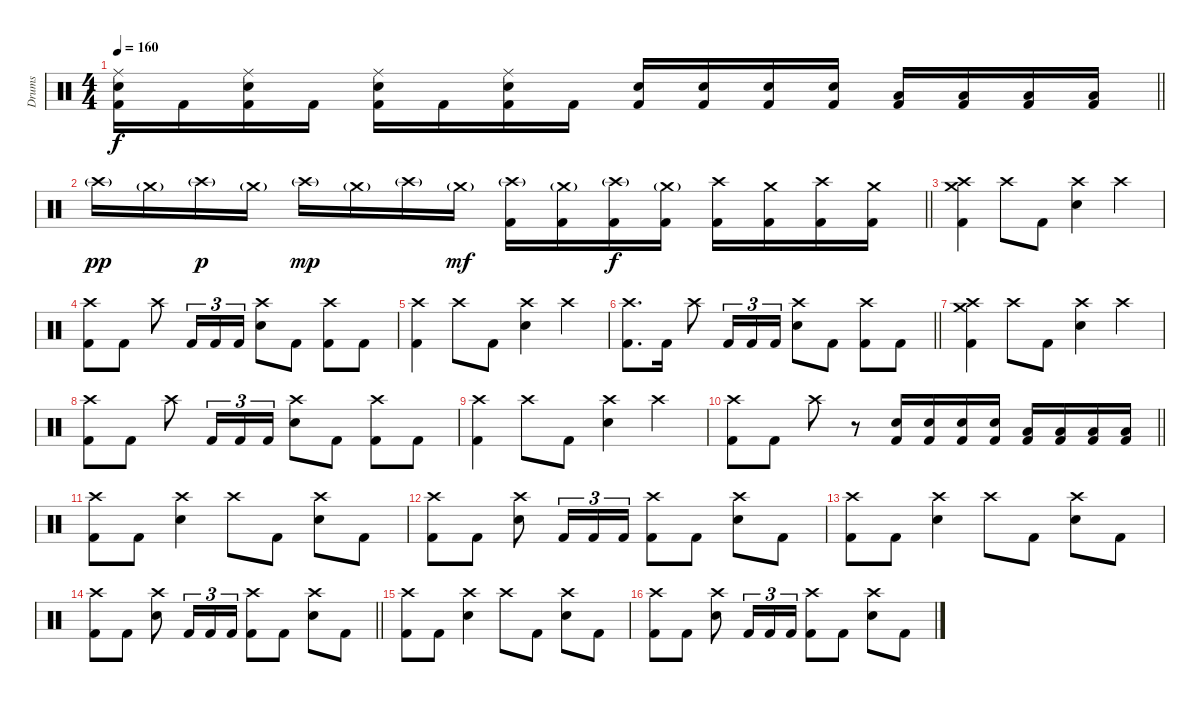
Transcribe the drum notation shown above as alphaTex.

\track ("Drums" "Drums") {instrument percussion}
\staff {score}
\articulation defaults
\ts (4 4)
\tempo 160
\clef neutral
\barLineRight lightlight
\ks c
("Ride (middle)" "Electric Snare (hit)" "Kick (hit) 2").16{dy f} "Kick (hit) 2".16 ("Ride (middle)" "Electric Snare (hit)" "Kick (hit) 2").16 "Kick (hit) 2".16 ("Ride (middle)" "Electric Snare (hit)" "Kick (hit) 2").16 "Kick (hit) 2".16 ("Ride (middle)" "Electric Snare (hit)" "Kick (hit) 2").16 "Kick (hit) 2".16 ("Electric Snare (hit)" "Kick (hit) 2").16 ("Electric Snare (hit)" "Kick (hit) 2").16 ("Electric Snare (hit)" "Kick (hit) 2").16 ("Electric Snare (hit)" "Kick (hit) 2").16 ("Low Tom (hit)" "Kick (hit) 2").16 ("Low Tom (hit)" "Kick (hit) 2").16 ("Low Tom (hit)" "Kick (hit) 2").16 ("Low Tom (hit)" "Kick (hit) 2").16 |
\barLineRight lightlight "Crash high (hit)"{g}.16{dy pp} "Crash medium (hit)"{g}.16 "Crash high (hit)"{g}.16{dy p} "Crash medium (hit)"{g}.16 "Crash high (hit)"{g}.16{dy mp} "Crash medium (hit)"{g}.16 "Crash high (hit)"{g}.16 "Crash medium (hit)"{g}.16{dy mf}
("Crash high (hit)"{g} "Kick (hit) 2").16 ("Crash medium (hit)"{g} "Kick (hit) 2").16 ("Crash high (hit)"{g} "Kick (hit) 2").16{dy f} ("Crash medium (hit)"{g} "Kick (hit) 2").16 ("Crash high (hit)" "Kick (hit) 2").16 ("Crash medium (hit)" "Kick (hit) 2").16 ("Crash high (hit)" "Kick (hit) 2").16 ("Crash medium (hit)" "Kick (hit) 2").16 |
("Crash high (hit)" "Crash medium (hit)" "Kick (hit) 2").4 "Crash high (hit)".8 "Kick (hit) 2".8 ("Crash high (hit)" "Electric Snare (hit)").4 "Crash high (hit)".4 |
("Crash high (hit)" "Kick (hit) 2").8 "Kick (hit) 2".8 "Crash high (hit)".8 "Kick (hit) 2".16{tu (3 2)} "Kick (hit) 2".16{tu (3 2)} "Kick (hit) 2".16{tu (3 2)} ("Crash high (hit)" "Electric Snare (hit)").8 "Kick (hit) 2".8 ("Crash high (hit)" "Kick (hit) 2").8 "Kick (hit) 2".8 |
("Crash high (hit)" "Kick (hit) 2").4 "Crash high (hit)".8 "Kick (hit) 2".8 ("Crash high (hit)" "Electric Snare (hit)").4 "Crash high (hit)".4 |
\barLineRight lightlight
("Crash high (hit)" "Kick (hit) 2").8{d} "Kick (hit) 2".16 "Crash high (hit)".8 "Kick (hit) 2".16{tu (3 2)} "Kick (hit) 2".16{tu (3 2)} "Kick (hit) 2".16{tu (3 2)} ("Crash high (hit)" "Electric Snare (hit)").8 "Kick (hit) 2".8 ("Crash high (hit)" "Kick (hit) 2").8 "Kick (hit) 2".8 |
("Crash high (hit)" "Crash medium (hit)" "Kick (hit) 2").4 "Crash high (hit)".8 "Kick (hit) 2".8 ("Crash high (hit)" "Electric Snare (hit)").4 "Crash high (hit)".4 |
("Crash high (hit)" "Kick (hit) 2").8 "Kick (hit) 2".8 "Crash high (hit)".8 "Kick (hit) 2".16{tu (3 2)} "Kick (hit) 2".16{tu (3 2)} "Kick (hit) 2".16{tu (3 2)} ("Crash high (hit)" "Electric Snare (hit)").8 "Kick (hit) 2".8 ("Crash high (hit)" "Kick (hit) 2").8 "Kick (hit) 2".8 |
("Crash high (hit)" "Kick (hit) 2").4 "Crash high (hit)".8 "Kick (hit) 2".8 ("Crash high (hit)" "Electric Snare (hit)").4 "Crash high (hit)".4 |
\barLineRight lightlight
("Crash high (hit)" "Kick (hit) 2").8 "Kick (hit) 2".8 "Crash high (hit)".8 r.8 ("Electric Snare (hit)" "Kick (hit) 2").16 ("Electric Snare (hit)" "Kick (hit) 2").16 ("Electric Snare (hit)" "Kick (hit) 2").16 ("Electric Snare (hit)" "Kick (hit) 2").16 ("Low Tom (hit)" "Kick (hit) 2").16 ("Low Tom (hit)" "Kick (hit) 2").16 ("Low Tom (hit)" "Kick (hit) 2").16 ("Low Tom (hit)" "Kick (hit) 2").16 |
("Crash high (hit)" "Kick (hit) 2").8 "Kick (hit) 2".8 ("Crash high (hit)" "Electric Snare (hit)").4 "Crash high (hit)".8 "Kick (hit) 2".8 ("Crash high (hit)" "Electric Snare (hit)").8 "Kick (hit) 2".8 |
("Crash high (hit)" "Kick (hit) 2").8 "Kick (hit) 2".8 ("Crash high (hit)" "Electric Snare (hit)").8 "Kick (hit) 2".16{tu (3 2)} "Kick (hit) 2".16{tu (3 2)} "Kick (hit) 2".16{tu (3 2)} ("Crash high (hit)" "Kick (hit) 2").8 "Kick (hit) 2".8 ("Crash high (hit)" "Electric Snare (hit)").8 "Kick (hit) 2".8 |
("Crash high (hit)" "Kick (hit) 2").8 "Kick (hit) 2".8 ("Crash high (hit)" "Electric Snare (hit)").4 "Crash high (hit)".8 "Kick (hit) 2".8 ("Crash high (hit)" "Electric Snare (hit)").8 "Kick (hit) 2".8 |
\barLineRight lightlight
("Crash high (hit)" "Kick (hit) 2").8 "Kick (hit) 2".8 ("Crash high (hit)" "Electric Snare (hit)").8 "Kick (hit) 2".16{tu (3 2)} "Kick (hit) 2".16{tu (3 2)} "Kick (hit) 2".16{tu (3 2)} ("Crash high (hit)" "Kick (hit) 2").8 "Kick (hit) 2".8 ("Crash high (hit)" "Electric Snare (hit)").8 "Kick (hit) 2".8 |
("Crash high (hit)" "Kick (hit) 2").8 "Kick (hit) 2".8 ("Crash high (hit)" "Electric Snare (hit)").4 "Crash high (hit)".8 "Kick (hit) 2".8 ("Crash high (hit)" "Electric Snare (hit)").8 "Kick (hit) 2".8 |
("Crash high (hit)" "Kick (hit) 2").8 "Kick (hit) 2".8 ("Crash high (hit)" "Electric Snare (hit)").8 "Kick (hit) 2".16{tu (3 2)} "Kick (hit) 2".16{tu (3 2)} "Kick (hit) 2".16{tu (3 2)} ("Crash high (hit)" "Kick (hit) 2").8 "Kick (hit) 2".8 ("Crash high (hit)" "Electric Snare (hit)").8 "Kick (hit) 2".8
